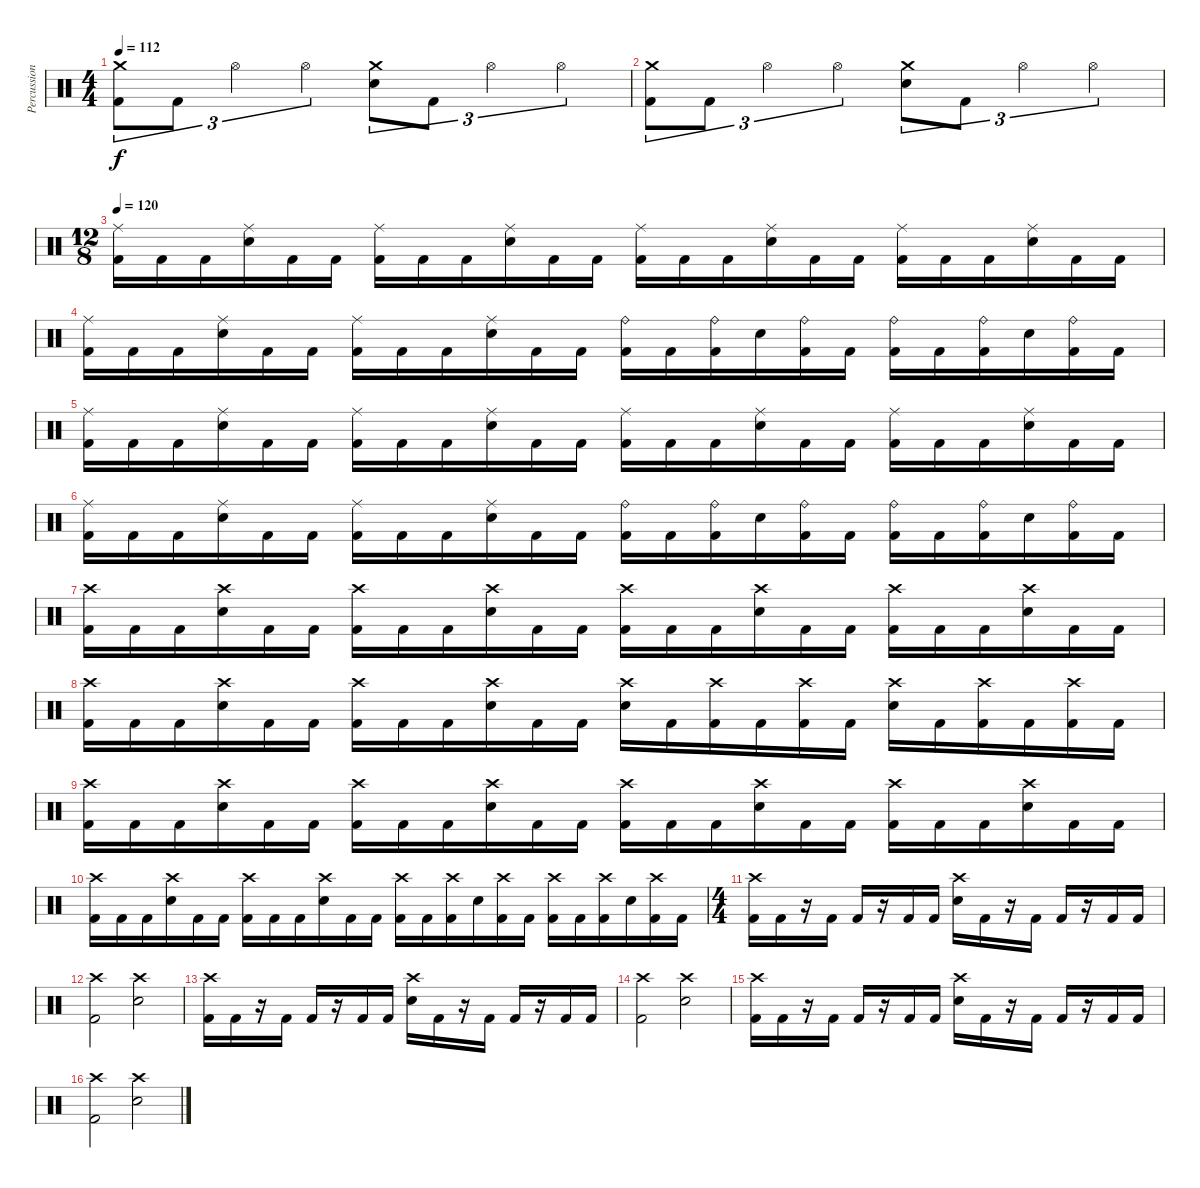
\track ("Percussion" "Percussion") {instrument percussion}
\staff {score}
\articulation defaults
\ts (4 4)
\tempo 112
\clef neutral
\ks c
("Crash medium (hit)" "Kick (hit) 2").8{tu (3 2) dy f} "Kick (hit) 2".8{tu (3 2)} "Hi-Hat (open)".4{tu (3 2)} "Hi-Hat (open)".4{tu (3 2)} ("Crash medium (hit)" "Snare (hit) 2").8{tu (3 2)} "Kick (hit) 2".8{tu (3 2)} "Hi-Hat (open)".4{tu (3 2)} "Hi-Hat (open)".4{tu (3 2)} |
("Crash medium (hit)" "Kick (hit) 2").8{tu (3 2)} "Kick (hit) 2".8{tu (3 2)} "Hi-Hat (open)".4{tu (3 2)} "Hi-Hat (open)".4{tu (3 2)} ("Crash medium (hit)" "Snare (hit) 2").8{tu (3 2)} "Kick (hit) 2".8{tu (3 2)} "Hi-Hat (open)".4{tu (3 2)} "Hi-Hat (open)".4{tu (3 2)} |
\ts (12 8)
\tempo 120
("Ride (middle)" "Kick (hit) 2").16 "Kick (hit) 2".16 "Kick (hit) 2".16 ("Ride (middle)" "Snare (hit) 2").16 "Kick (hit) 2".16 "Kick (hit) 2".16 ("Ride (middle)" "Kick (hit) 2").16 "Kick (hit) 2".16 "Kick (hit) 2".16 ("Ride (middle)" "Snare (hit) 2").16 "Kick (hit) 2".16 "Kick (hit) 2".16 ("Ride (middle)" "Kick (hit) 2").16 "Kick (hit) 2".16 "Kick (hit) 2".16 ("Ride (middle)" "Snare (hit) 2").16 "Kick (hit) 2".16 "Kick (hit) 2".16 ("Ride (middle)" "Kick (hit) 2").16 "Kick (hit) 2".16 "Kick (hit) 2".16 ("Ride (middle)" "Snare (hit) 2").16 "Kick (hit) 2".16 "Kick (hit) 2".16 |
("Ride (middle)" "Kick (hit) 2").16 "Kick (hit) 2".16 "Kick (hit) 2".16 ("Ride (middle)" "Snare (hit) 2").16 "Kick (hit) 2".16 "Kick (hit) 2".16 ("Ride (middle)" "Kick (hit) 2").16 "Kick (hit) 2".16 "Kick (hit) 2".16 ("Ride (middle)" "Snare (hit) 2").16 "Kick (hit) 2".16 "Kick (hit) 2".16 ("Ride (bell)" "Kick (hit) 2").16 "Kick (hit) 2".16 ("Ride (bell)" "Kick (hit) 2").16 "Snare (hit) 2".16 ("Ride (bell)" "Kick (hit) 2").16 "Kick (hit) 2".16 ("Ride (bell)" "Kick (hit) 2").16 "Kick (hit) 2".16 ("Ride (bell)" "Kick (hit) 2").16 "Snare (hit) 2".16 ("Ride (bell)" "Kick (hit) 2").16 "Kick (hit) 2".16 |
("Ride (middle)" "Kick (hit) 2").16 "Kick (hit) 2".16 "Kick (hit) 2".16 ("Ride (middle)" "Snare (hit) 2").16 "Kick (hit) 2".16 "Kick (hit) 2".16 ("Ride (middle)" "Kick (hit) 2").16 "Kick (hit) 2".16 "Kick (hit) 2".16 ("Ride (middle)" "Snare (hit) 2").16 "Kick (hit) 2".16 "Kick (hit) 2".16 ("Ride (middle)" "Kick (hit) 2").16 "Kick (hit) 2".16 "Kick (hit) 2".16 ("Ride (middle)" "Snare (hit) 2").16 "Kick (hit) 2".16 "Kick (hit) 2".16 ("Ride (middle)" "Kick (hit) 2").16 "Kick (hit) 2".16 "Kick (hit) 2".16 ("Ride (middle)" "Snare (hit) 2").16 "Kick (hit) 2".16 "Kick (hit) 2".16 |
("Ride (middle)" "Kick (hit) 2").16 "Kick (hit) 2".16 "Kick (hit) 2".16 ("Ride (middle)" "Snare (hit) 2").16 "Kick (hit) 2".16 "Kick (hit) 2".16 ("Ride (middle)" "Kick (hit) 2").16 "Kick (hit) 2".16 "Kick (hit) 2".16 ("Ride (middle)" "Snare (hit) 2").16 "Kick (hit) 2".16 "Kick (hit) 2".16 ("Ride (bell)" "Kick (hit) 2").16 "Kick (hit) 2".16 ("Ride (bell)" "Kick (hit) 2").16 "Snare (hit) 2".16 ("Ride (bell)" "Kick (hit) 2").16 "Kick (hit) 2".16 ("Ride (bell)" "Kick (hit) 2").16 "Kick (hit) 2".16 ("Ride (bell)" "Kick (hit) 2").16 "Snare (hit) 2".16 ("Ride (bell)" "Kick (hit) 2").16 "Kick (hit) 2".16 |
("Crash high (hit)" "Kick (hit) 2").16 "Kick (hit) 2".16 "Kick (hit) 2".16 ("Crash high (hit)" "Snare (hit) 2").16 "Kick (hit) 2".16 "Kick (hit) 2".16 ("Crash high (hit)" "Kick (hit) 2").16 "Kick (hit) 2".16 "Kick (hit) 2".16 ("Crash high (hit)" "Snare (hit) 2").16 "Kick (hit) 2".16 "Kick (hit) 2".16 ("Crash high (hit)" "Kick (hit) 2").16 "Kick (hit) 2".16 "Kick (hit) 2".16 ("Crash high (hit)" "Snare (hit) 2").16 "Kick (hit) 2".16 "Kick (hit) 2".16 ("Crash high (hit)" "Kick (hit) 2").16 "Kick (hit) 2".16 "Kick (hit) 2".16 ("Crash high (hit)" "Snare (hit) 2").16 "Kick (hit) 2".16 "Kick (hit) 2".16 |
("Crash high (hit)" "Kick (hit) 2").16 "Kick (hit) 2".16 "Kick (hit) 2".16 ("Crash high (hit)" "Snare (hit) 2").16 "Kick (hit) 2".16 "Kick (hit) 2".16 ("Crash high (hit)" "Kick (hit) 2").16 "Kick (hit) 2".16 "Kick (hit) 2".16 ("Crash high (hit)" "Snare (hit) 2").16 "Kick (hit) 2".16 "Kick (hit) 2".16 ("Crash high (hit)" "Snare (hit) 2").16 "Kick (hit) 2".16 ("Crash high (hit)" "Kick (hit) 2").16 "Kick (hit) 2".16 ("Crash high (hit)" "Kick (hit) 2").16 "Kick (hit) 2".16 ("Crash high (hit)" "Snare (hit) 2").16 "Kick (hit) 2".16 ("Crash high (hit)" "Kick (hit) 2").16 "Kick (hit) 2".16 ("Crash high (hit)" "Kick (hit) 2").16 "Kick (hit) 2".16 |
("Crash high (hit)" "Kick (hit) 2").16 "Kick (hit) 2".16 "Kick (hit) 2".16 ("Crash high (hit)" "Snare (hit) 2").16 "Kick (hit) 2".16 "Kick (hit) 2".16 ("Crash high (hit)" "Kick (hit) 2").16 "Kick (hit) 2".16 "Kick (hit) 2".16 ("Crash high (hit)" "Snare (hit) 2").16 "Kick (hit) 2".16 "Kick (hit) 2".16 ("Crash high (hit)" "Kick (hit) 2").16 "Kick (hit) 2".16 "Kick (hit) 2".16 ("Crash high (hit)" "Snare (hit) 2").16 "Kick (hit) 2".16 "Kick (hit) 2".16 ("Crash high (hit)" "Kick (hit) 2").16 "Kick (hit) 2".16 "Kick (hit) 2".16 ("Crash high (hit)" "Snare (hit) 2").16 "Kick (hit) 2".16 "Kick (hit) 2".16 |
("Crash high (hit)" "Kick (hit) 2").16 "Kick (hit) 2".16 "Kick (hit) 2".16 ("Crash high (hit)" "Snare (hit) 2").16 "Kick (hit) 2".16 "Kick (hit) 2".16 ("Crash high (hit)" "Kick (hit) 2").16 "Kick (hit) 2".16 "Kick (hit) 2".16 ("Crash high (hit)" "Snare (hit) 2").16 "Kick (hit) 2".16 "Kick (hit) 2".16 ("Crash high (hit)" "Kick (hit) 2").16 "Kick (hit) 2".16 ("Crash high (hit)" "Kick (hit) 2").16 "Snare (hit) 2".16 ("Crash high (hit)" "Kick (hit) 2").16 "Kick (hit) 2".16 ("Crash high (hit)" "Kick (hit) 2").16 "Kick (hit) 2".16 ("Crash high (hit)" "Kick (hit) 2").16 "Snare (hit) 2".16 ("Crash high (hit)" "Kick (hit) 2").16 "Kick (hit) 2".16 |
\ts (4 4)
("Kick (hit) 2" "Crash high (hit)").16 "Kick (hit) 2".16 r.16 "Kick (hit) 2".16 "Kick (hit) 2".16 r.16 "Kick (hit) 2".16 "Kick (hit) 2".16 ("Snare (hit) 2" "Crash high (hit)").16 "Kick (hit) 2".16 r.16 "Kick (hit) 2".16 "Kick (hit) 2".16 r.16 "Kick (hit) 2".16 "Kick (hit) 2".16 |
("Crash high (hit)" "Kick (hit) 2").2 ("Crash high (hit)" "Snare (hit) 2").2 |
("Kick (hit) 2" "Crash high (hit)").16 "Kick (hit) 2".16 r.16 "Kick (hit) 2".16 "Kick (hit) 2".16 r.16 "Kick (hit) 2".16 "Kick (hit) 2".16 ("Snare (hit) 2" "Crash high (hit)").16 "Kick (hit) 2".16 r.16 "Kick (hit) 2".16 "Kick (hit) 2".16 r.16 "Kick (hit) 2".16 "Kick (hit) 2".16 |
("Crash high (hit)" "Kick (hit) 2").2 ("Crash high (hit)" "Snare (hit) 2").2 |
("Kick (hit) 2" "Crash high (hit)").16 "Kick (hit) 2".16 r.16 "Kick (hit) 2".16 "Kick (hit) 2".16 r.16 "Kick (hit) 2".16 "Kick (hit) 2".16 ("Snare (hit) 2" "Crash high (hit)").16 "Kick (hit) 2".16 r.16 "Kick (hit) 2".16 "Kick (hit) 2".16 r.16 "Kick (hit) 2".16 "Kick (hit) 2".16 |
("Crash high (hit)" "Kick (hit) 2").2 ("Crash high (hit)" "Snare (hit) 2").2
